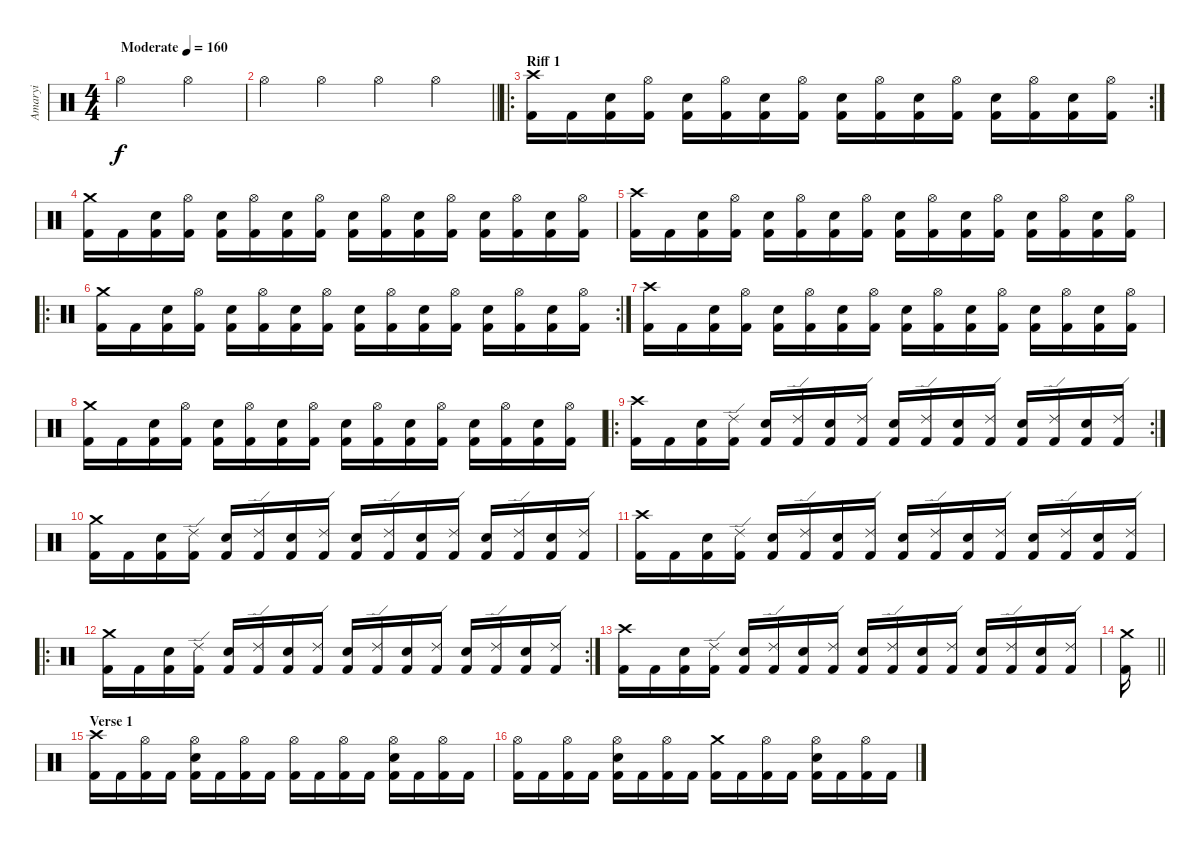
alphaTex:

\track ("Amaryi" "Amaryi") {instrument percussion}
\staff {score}
\articulation defaults
\ts (4 4)
\tempo (160 "Moderate")
\clef neutral
\ks c "Hi-Hat (open)".2{dy f} "Hi-Hat (open)".4
|
\barLineRight lightlight "Hi-Hat (open)".4 "Hi-Hat (open)".4 "Hi-Hat (open)".4 "Hi-Hat (open)".4
|
\ro
\rc 2
\section ("" "Riff 1")
("Crash high (hit)" "Kick (hit) 2").16 "Kick (hit) 2".16 ("Electric Snare (hit)" "Kick (hit) 2").16 ("Hi-Hat (open)" "Kick (hit) 2").16 ("Electric Snare (hit)" "Kick (hit) 2").16 ("Hi-Hat (open)" "Kick (hit) 2").16 ("Electric Snare (hit)" "Kick (hit) 2").16 ("Hi-Hat (open)" "Kick (hit) 2").16 ("Electric Snare (hit)" "Kick (hit) 2").16 ("Hi-Hat (open)" "Kick (hit) 2").16 ("Electric Snare (hit)" "Kick (hit) 2").16 ("Hi-Hat (open)" "Kick (hit) 2").16 ("Electric Snare (hit)" "Kick (hit) 2").16 ("Hi-Hat (open)" "Kick (hit) 2").16 ("Electric Snare (hit)" "Kick (hit) 2").16 ("Hi-Hat (open)" "Kick (hit) 2").16 |
("Crash medium (hit)" "Kick (hit) 2").16 "Kick (hit) 2".16 ("Electric Snare (hit)" "Kick (hit) 2").16 ("Hi-Hat (open)" "Kick (hit) 2").16 ("Electric Snare (hit)" "Kick (hit) 2").16 ("Hi-Hat (open)" "Kick (hit) 2").16 ("Electric Snare (hit)" "Kick (hit) 2").16 ("Hi-Hat (open)" "Kick (hit) 2").16 ("Electric Snare (hit)" "Kick (hit) 2").16 ("Hi-Hat (open)" "Kick (hit) 2").16 ("Electric Snare (hit)" "Kick (hit) 2").16 ("Hi-Hat (open)" "Kick (hit) 2").16 ("Electric Snare (hit)" "Kick (hit) 2").16 ("Hi-Hat (open)" "Kick (hit) 2").16 ("Electric Snare (hit)" "Kick (hit) 2").16 ("Hi-Hat (open)" "Kick (hit) 2").16 |
("Crash high (hit)" "Kick (hit) 2").16 "Kick (hit) 2".16 ("Electric Snare (hit)" "Kick (hit) 2").16 ("Hi-Hat (open)" "Kick (hit) 2").16 ("Electric Snare (hit)" "Kick (hit) 2").16 ("Hi-Hat (open)" "Kick (hit) 2").16 ("Electric Snare (hit)" "Kick (hit) 2").16 ("Hi-Hat (open)" "Kick (hit) 2").16 ("Electric Snare (hit)" "Kick (hit) 2").16 ("Hi-Hat (open)" "Kick (hit) 2").16 ("Electric Snare (hit)" "Kick (hit) 2").16 ("Hi-Hat (open)" "Kick (hit) 2").16 ("Electric Snare (hit)" "Kick (hit) 2").16 ("Hi-Hat (open)" "Kick (hit) 2").16 ("Electric Snare (hit)" "Kick (hit) 2").16 ("Hi-Hat (open)" "Kick (hit) 2").16 |
\ro
\rc 2
("Crash medium (hit)" "Kick (hit) 2").16 "Kick (hit) 2".16 ("Electric Snare (hit)" "Kick (hit) 2").16 ("Hi-Hat (open)" "Kick (hit) 2").16 ("Electric Snare (hit)" "Kick (hit) 2").16 ("Hi-Hat (open)" "Kick (hit) 2").16 ("Electric Snare (hit)" "Kick (hit) 2").16 ("Hi-Hat (open)" "Kick (hit) 2").16 ("Electric Snare (hit)" "Kick (hit) 2").16 ("Hi-Hat (open)" "Kick (hit) 2").16 ("Electric Snare (hit)" "Kick (hit) 2").16 ("Hi-Hat (open)" "Kick (hit) 2").16 ("Electric Snare (hit)" "Kick (hit) 2").16 ("Hi-Hat (open)" "Kick (hit) 2").16 ("Electric Snare (hit)" "Kick (hit) 2").16 ("Hi-Hat (open)" "Kick (hit) 2").16 |
("Crash high (hit)" "Kick (hit) 2").16 "Kick (hit) 2".16 ("Electric Snare (hit)" "Kick (hit) 2").16 ("Hi-Hat (open)" "Kick (hit) 2").16 ("Electric Snare (hit)" "Kick (hit) 2").16 ("Hi-Hat (open)" "Kick (hit) 2").16 ("Electric Snare (hit)" "Kick (hit) 2").16 ("Hi-Hat (open)" "Kick (hit) 2").16 ("Electric Snare (hit)" "Kick (hit) 2").16 ("Hi-Hat (open)" "Kick (hit) 2").16 ("Electric Snare (hit)" "Kick (hit) 2").16 ("Hi-Hat (open)" "Kick (hit) 2").16 ("Electric Snare (hit)" "Kick (hit) 2").16 ("Hi-Hat (open)" "Kick (hit) 2").16 ("Electric Snare (hit)" "Kick (hit) 2").16 ("Hi-Hat (open)" "Kick (hit) 2").16 |
("Crash medium (hit)" "Kick (hit) 2").16 "Kick (hit) 2".16 ("Electric Snare (hit)" "Kick (hit) 2").16 ("Hi-Hat (open)" "Kick (hit) 2").16 ("Electric Snare (hit)" "Kick (hit) 2").16 ("Hi-Hat (open)" "Kick (hit) 2").16 ("Electric Snare (hit)" "Kick (hit) 2").16 ("Hi-Hat (open)" "Kick (hit) 2").16 ("Electric Snare (hit)" "Kick (hit) 2").16 ("Hi-Hat (open)" "Kick (hit) 2").16 ("Electric Snare (hit)" "Kick (hit) 2").16 ("Hi-Hat (open)" "Kick (hit) 2").16 ("Electric Snare (hit)" "Kick (hit) 2").16 ("Hi-Hat (open)" "Kick (hit) 2").16 ("Electric Snare (hit)" "Kick (hit) 2").16 ("Hi-Hat (open)" "Kick (hit) 2").16 |
\ro
\rc 2
("Crash high (hit)" "Kick (hit) 2").16 "Kick (hit) 2".16 ("Electric Snare (hit)" "Kick (hit) 2").16 ("Ride (edge) 2" "Kick (hit) 2").16 ("Electric Snare (hit)" "Kick (hit) 2").16 ("Ride (edge) 2" "Kick (hit) 2").16 ("Electric Snare (hit)" "Kick (hit) 2").16 ("Ride (edge) 2" "Kick (hit) 2").16 ("Electric Snare (hit)" "Kick (hit) 2").16 ("Ride (edge) 2" "Kick (hit) 2").16 ("Electric Snare (hit)" "Kick (hit) 2").16 ("Ride (edge) 2" "Kick (hit) 2").16 ("Electric Snare (hit)" "Kick (hit) 2").16 ("Ride (edge) 2" "Kick (hit) 2").16 ("Electric Snare (hit)" "Kick (hit) 2").16 ("Ride (edge) 2" "Kick (hit) 2").16 |
("Crash medium (hit)" "Kick (hit) 2").16 "Kick (hit) 2".16 ("Electric Snare (hit)" "Kick (hit) 2").16 ("Ride (edge) 2" "Kick (hit) 2").16 ("Electric Snare (hit)" "Kick (hit) 2").16 ("Ride (edge) 2" "Kick (hit) 2").16 ("Electric Snare (hit)" "Kick (hit) 2").16 ("Ride (edge) 2" "Kick (hit) 2").16 ("Electric Snare (hit)" "Kick (hit) 2").16 ("Ride (edge) 2" "Kick (hit) 2").16 ("Electric Snare (hit)" "Kick (hit) 2").16 ("Ride (edge) 2" "Kick (hit) 2").16 ("Electric Snare (hit)" "Kick (hit) 2").16 ("Ride (edge) 2" "Kick (hit) 2").16 ("Electric Snare (hit)" "Kick (hit) 2").16 ("Ride (edge) 2" "Kick (hit) 2").16 |
("Crash high (hit)" "Kick (hit) 2").16 "Kick (hit) 2".16 ("Electric Snare (hit)" "Kick (hit) 2").16 ("Ride (edge) 2" "Kick (hit) 2").16 ("Electric Snare (hit)" "Kick (hit) 2").16 ("Ride (edge) 2" "Kick (hit) 2").16 ("Electric Snare (hit)" "Kick (hit) 2").16 ("Ride (edge) 2" "Kick (hit) 2").16 ("Electric Snare (hit)" "Kick (hit) 2").16 ("Ride (edge) 2" "Kick (hit) 2").16 ("Electric Snare (hit)" "Kick (hit) 2").16 ("Ride (edge) 2" "Kick (hit) 2").16 ("Electric Snare (hit)" "Kick (hit) 2").16 ("Ride (edge) 2" "Kick (hit) 2").16 ("Electric Snare (hit)" "Kick (hit) 2").16 ("Ride (edge) 2" "Kick (hit) 2").16 |
\ro
\rc 2
("Crash medium (hit)" "Kick (hit) 2").16 "Kick (hit) 2".16 ("Electric Snare (hit)" "Kick (hit) 2").16 ("Ride (edge) 2" "Kick (hit) 2").16 ("Electric Snare (hit)" "Kick (hit) 2").16 ("Ride (edge) 2" "Kick (hit) 2").16 ("Electric Snare (hit)" "Kick (hit) 2").16 ("Ride (edge) 2" "Kick (hit) 2").16 ("Electric Snare (hit)" "Kick (hit) 2").16 ("Ride (edge) 2" "Kick (hit) 2").16 ("Electric Snare (hit)" "Kick (hit) 2").16 ("Ride (edge) 2" "Kick (hit) 2").16 ("Electric Snare (hit)" "Kick (hit) 2").16 ("Ride (edge) 2" "Kick (hit) 2").16 ("Electric Snare (hit)" "Kick (hit) 2").16 ("Ride (edge) 2" "Kick (hit) 2").16 |
("Crash high (hit)" "Kick (hit) 2").16 "Kick (hit) 2".16 ("Electric Snare (hit)" "Kick (hit) 2").16 ("Ride (edge) 2" "Kick (hit) 2").16 ("Electric Snare (hit)" "Kick (hit) 2").16 ("Ride (edge) 2" "Kick (hit) 2").16 ("Electric Snare (hit)" "Kick (hit) 2").16 ("Ride (edge) 2" "Kick (hit) 2").16 ("Electric Snare (hit)" "Kick (hit) 2").16 ("Ride (edge) 2" "Kick (hit) 2").16 ("Electric Snare (hit)" "Kick (hit) 2").16 ("Ride (edge) 2" "Kick (hit) 2").16 ("Electric Snare (hit)" "Kick (hit) 2").16 ("Ride (edge) 2" "Kick (hit) 2").16 ("Electric Snare (hit)" "Kick (hit) 2").16 ("Ride (edge) 2" "Kick (hit) 2").16 |
\barLineRight lightlight
("Crash medium (hit)" "Kick (hit) 2").16 |
\section ("" "Verse 1")
("Crash high (hit)" "Kick (hit) 2").16 "Kick (hit) 2".16 ("Hi-Hat (open)" "Kick (hit) 2").16 "Kick (hit) 2".16 ("Hi-Hat (open)" "Electric Snare (hit)" "Kick (hit) 2").16 "Kick (hit) 2".16 ("Hi-Hat (open)" "Kick (hit) 2").16 "Kick (hit) 2".16 ("Hi-Hat (open)" "Kick (hit) 2").16 "Kick (hit) 2".16 ("Hi-Hat (open)" "Kick (hit) 2").16 "Kick (hit) 2".16 ("Hi-Hat (open)" "Electric Snare (hit)" "Kick (hit) 2").16 "Kick (hit) 2".16 ("Hi-Hat (open)" "Kick (hit) 2").16 "Kick (hit) 2".16 |
("Hi-Hat (open)" "Kick (hit) 2").16 "Kick (hit) 2".16 ("Hi-Hat (open)" "Kick (hit) 2").16 "Kick (hit) 2".16 ("Hi-Hat (open)" "Electric Snare (hit)" "Kick (hit) 2").16 "Kick (hit) 2".16 ("Hi-Hat (open)" "Kick (hit) 2").16 "Kick (hit) 2".16 ("Crash medium (hit)" "Kick (hit) 2").16 "Kick (hit) 2".16 ("Hi-Hat (open)" "Kick (hit) 2").16 "Kick (hit) 2".16 ("Hi-Hat (open)" "Electric Snare (hit)" "Kick (hit) 2").16 "Kick (hit) 2".16 ("Hi-Hat (open)" "Kick (hit) 2").16 "Kick (hit) 2".16
